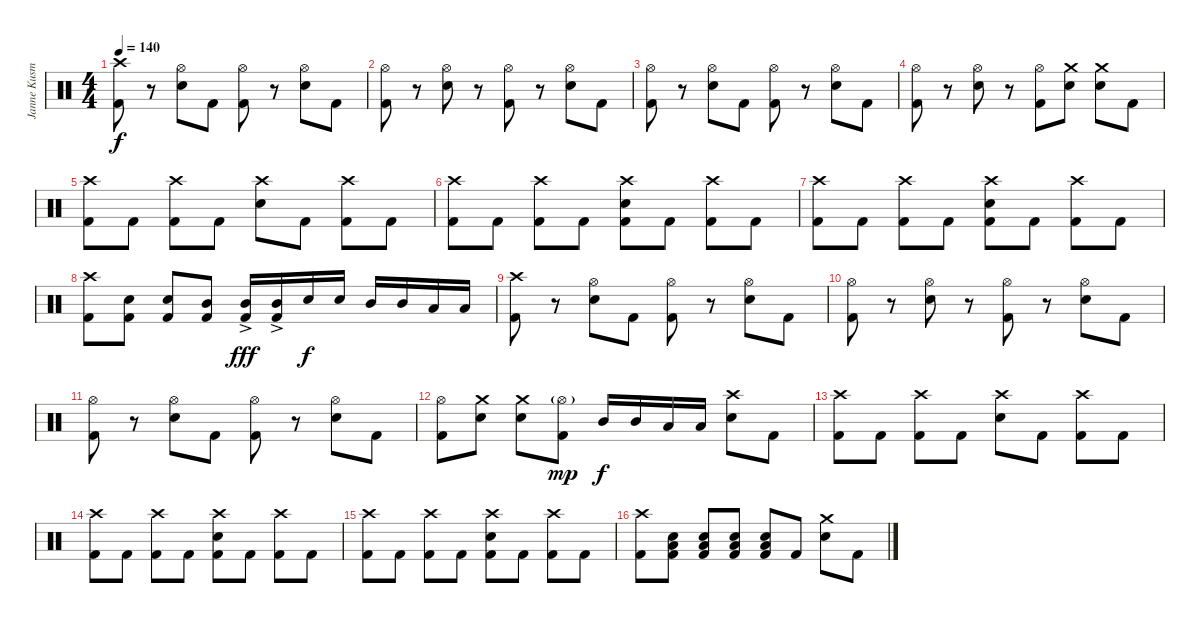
\track ("Janne Kusmin" "Janne Kusm") {instrument percussion}
\staff {score}
\articulation defaults
\ts (4 4)
\tempo 140
\clef neutral
\ks c
("Crash high (hit)" "Kick (hit) 2").8{dy f} r.8 ("Hi-Hat (open)" "Electric Snare (hit)").8 "Kick (hit) 2".8 ("Hi-Hat (open)" "Kick (hit) 2").8 r.8 ("Hi-Hat (open)" "Electric Snare (hit)").8 "Kick (hit) 2".8 |
("Hi-Hat (open)" "Kick (hit) 2").8 r.8 ("Hi-Hat (open)" "Electric Snare (hit)").8 r.8 ("Hi-Hat (open)" "Kick (hit) 2").8 r.8 ("Hi-Hat (open)" "Electric Snare (hit)").8 "Kick (hit) 2".8 |
("Hi-Hat (open)" "Kick (hit) 2").8 r.8 ("Hi-Hat (open)" "Electric Snare (hit)").8 "Kick (hit) 2".8 ("Hi-Hat (open)" "Kick (hit) 2").8 r.8 ("Hi-Hat (open)" "Electric Snare (hit)").8 "Kick (hit) 2".8 |
("Hi-Hat (open)" "Kick (hit) 2").8 r.8 ("Hi-Hat (open)" "Electric Snare (hit)").8 r.8 ("Hi-Hat (open)" "Kick (hit) 2").8 ("Crash medium (hit)" "Electric Snare (hit)").8 ("Crash medium (hit)" "Electric Snare (hit)").8 "Kick (hit) 2".8 |
("Crash high (hit)" "Kick (hit) 2").8 "Kick (hit) 2".8 ("Crash high (hit)" "Kick (hit) 2").8 "Kick (hit) 2".8 ("Crash high (hit)" "Electric Snare (hit)").8 "Kick (hit) 2".8 ("Crash high (hit)" "Kick (hit) 2").8 "Kick (hit) 2".8 |
("Crash high (hit)" "Kick (hit) 2").8 "Kick (hit) 2".8 ("Crash high (hit)" "Kick (hit) 2").8 "Kick (hit) 2".8 ("Crash high (hit)" "Electric Snare (hit)" "Kick (hit) 2").8 "Kick (hit) 2".8 ("Crash high (hit)" "Kick (hit) 2").8 "Kick (hit) 2".8 |
("Crash high (hit)" "Kick (hit) 2").8 "Kick (hit) 2".8 ("Crash high (hit)" "Kick (hit) 2").8 "Kick (hit) 2".8 ("Crash high (hit)" "Electric Snare (hit)" "Kick (hit) 2").8 "Kick (hit) 2".8 ("Crash high (hit)" "Kick (hit) 2").8 "Kick (hit) 2".8 |
("Crash high (hit)" "Kick (hit) 2").8 ("Electric Snare (hit)" "Kick (hit) 2").8 ("Electric Snare (hit)" "Kick (hit) 2").8 ("Mid Tom (hit)" "Kick (hit) 2").8 ("Mid Tom (hit)"{ac} "Kick (hit) 2").16{dy fff} ("Mid Tom (hit)"{ac} "Kick (hit) 2").16 "Electric Snare (hit)".16{dy f} "Electric Snare (hit)".16 "Mid Tom (hit)".16 "Mid Tom (hit)".16 "Low Tom (hit)".16 "Low Tom (hit)".16 |
("Crash high (hit)" "Kick (hit) 2").8 r.8 ("Hi-Hat (open)" "Electric Snare (hit)").8 "Kick (hit) 2".8 ("Hi-Hat (open)" "Kick (hit) 2").8 r.8 ("Hi-Hat (open)" "Electric Snare (hit)").8 "Kick (hit) 2".8 |
("Hi-Hat (open)" "Kick (hit) 2").8 r.8 ("Hi-Hat (open)" "Electric Snare (hit)").8 r.8 ("Hi-Hat (open)" "Kick (hit) 2").8 r.8 ("Hi-Hat (open)" "Electric Snare (hit)").8 "Kick (hit) 2".8 |
("Hi-Hat (open)" "Kick (hit) 2").8 r.8 ("Hi-Hat (open)" "Electric Snare (hit)").8 "Kick (hit) 2".8 ("Hi-Hat (open)" "Kick (hit) 2").8 r.8 ("Hi-Hat (open)" "Electric Snare (hit)").8 "Kick (hit) 2".8 |
("Hi-Hat (open)" "Kick (hit) 2").8 ("Crash medium (hit)" "Electric Snare (hit)").8 ("Crash medium (hit)" "Electric Snare (hit)").8 ("Hi-Hat (open)"{g} "Kick (hit) 2").8{dy mp} "Mid Tom (hit)".16{dy f} "Mid Tom (hit)".16 "Low Tom (hit)".16 "Low Tom (hit)".16 ("Crash high (hit)" "Electric Snare (hit)").8 "Kick (hit) 2".8 |
("Crash high (hit)" "Kick (hit) 2").8 "Kick (hit) 2".8 ("Crash high (hit)" "Kick (hit) 2").8 "Kick (hit) 2".8 ("Crash high (hit)" "Electric Snare (hit)").8 "Kick (hit) 2".8 ("Crash high (hit)" "Kick (hit) 2").8 "Kick (hit) 2".8 |
("Crash high (hit)" "Kick (hit) 2").8 "Kick (hit) 2".8 ("Crash high (hit)" "Kick (hit) 2").8 "Kick (hit) 2".8 ("Crash high (hit)" "Electric Snare (hit)" "Kick (hit) 2").8 "Kick (hit) 2".8 ("Crash high (hit)" "Kick (hit) 2").8 "Kick (hit) 2".8 |
("Crash high (hit)" "Kick (hit) 2").8 "Kick (hit) 2".8 ("Crash high (hit)" "Kick (hit) 2").8 "Kick (hit) 2".8 ("Crash high (hit)" "Electric Snare (hit)" "Kick (hit) 2").8 "Kick (hit) 2".8 ("Crash high (hit)" "Kick (hit) 2").8 "Kick (hit) 2".8 |
("Crash high (hit)" "Kick (hit) 2").8 ("Low Tom (hit)" "Electric Snare (hit)" "Kick (hit) 2").8 ("Low Tom (hit)" "Electric Snare (hit)" "Kick (hit) 2").8 ("Low Tom (hit)" "Electric Snare (hit)" "Kick (hit) 2").8 ("Low Tom (hit)" "Electric Snare (hit)" "Kick (hit) 2").8 "Kick (hit) 2".8 ("Crash medium (hit)" "Electric Snare (hit)").8 "Kick (hit) 2".8
